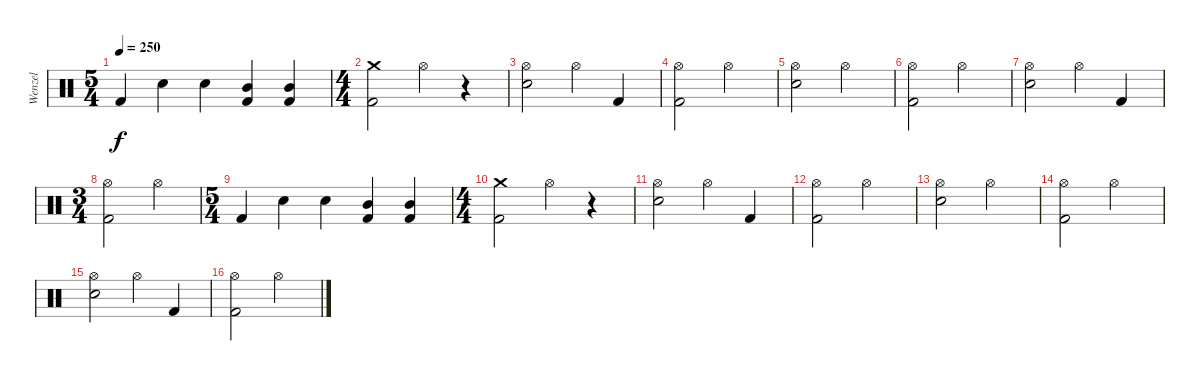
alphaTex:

\track ("Wenzel" "Wenzel") {instrument percussion}
\staff {score}
\articulation defaults
\ts (5 4)
\tempo 250
\clef neutral
\ks c "Kick (hit) 2".4{dy f} "Snare (hit) 2".4 "Snare (hit) 2".4
("Mid Tom (hit)" "Kick (hit) 2").4 ("Mid Tom (hit)" "Kick (hit) 2").4 |
\ts (4 4)
("Crash medium (hit)" "Kick (hit) 2").2 "Hi-Hat (open)".4 r.4 |
("Hi-Hat (open)" "Snare (hit) 2").2 "Hi-Hat (open)".4 "Kick (hit) 2".4 |
("Hi-Hat (open)" "Kick (hit) 2").2 "Hi-Hat (open)".2 |
("Hi-Hat (open)" "Snare (hit) 2").2 "Hi-Hat (open)".2 |
("Hi-Hat (open)" "Kick (hit) 2").2 "Hi-Hat (open)".2 |
("Hi-Hat (open)" "Snare (hit) 2").2 "Hi-Hat (open)".4 "Kick (hit) 2".4 |
\ts (3 4)
("Hi-Hat (open)" "Kick (hit) 2").2 "Hi-Hat (open)".4 |
\ts (5 4)
"Kick (hit) 2".4 "Snare (hit) 2".4 "Snare (hit) 2".4 ("Mid Tom (hit)" "Kick (hit) 2").4 ("Mid Tom (hit)" "Kick (hit) 2").4 |
\ts (4 4)
("Crash medium (hit)" "Kick (hit) 2").2 "Hi-Hat (open)".4 r.4 |
("Hi-Hat (open)" "Snare (hit) 2").2 "Hi-Hat (open)".4 "Kick (hit) 2".4 |
("Hi-Hat (open)" "Kick (hit) 2").2 "Hi-Hat (open)".2 |
("Hi-Hat (open)" "Snare (hit) 2").2 "Hi-Hat (open)".2 |
("Hi-Hat (open)" "Kick (hit) 2").2 "Hi-Hat (open)".2 |
("Hi-Hat (open)" "Snare (hit) 2").2 "Hi-Hat (open)".4 "Kick (hit) 2".4 |
("Hi-Hat (open)" "Kick (hit) 2").2 "Hi-Hat (open)".2
